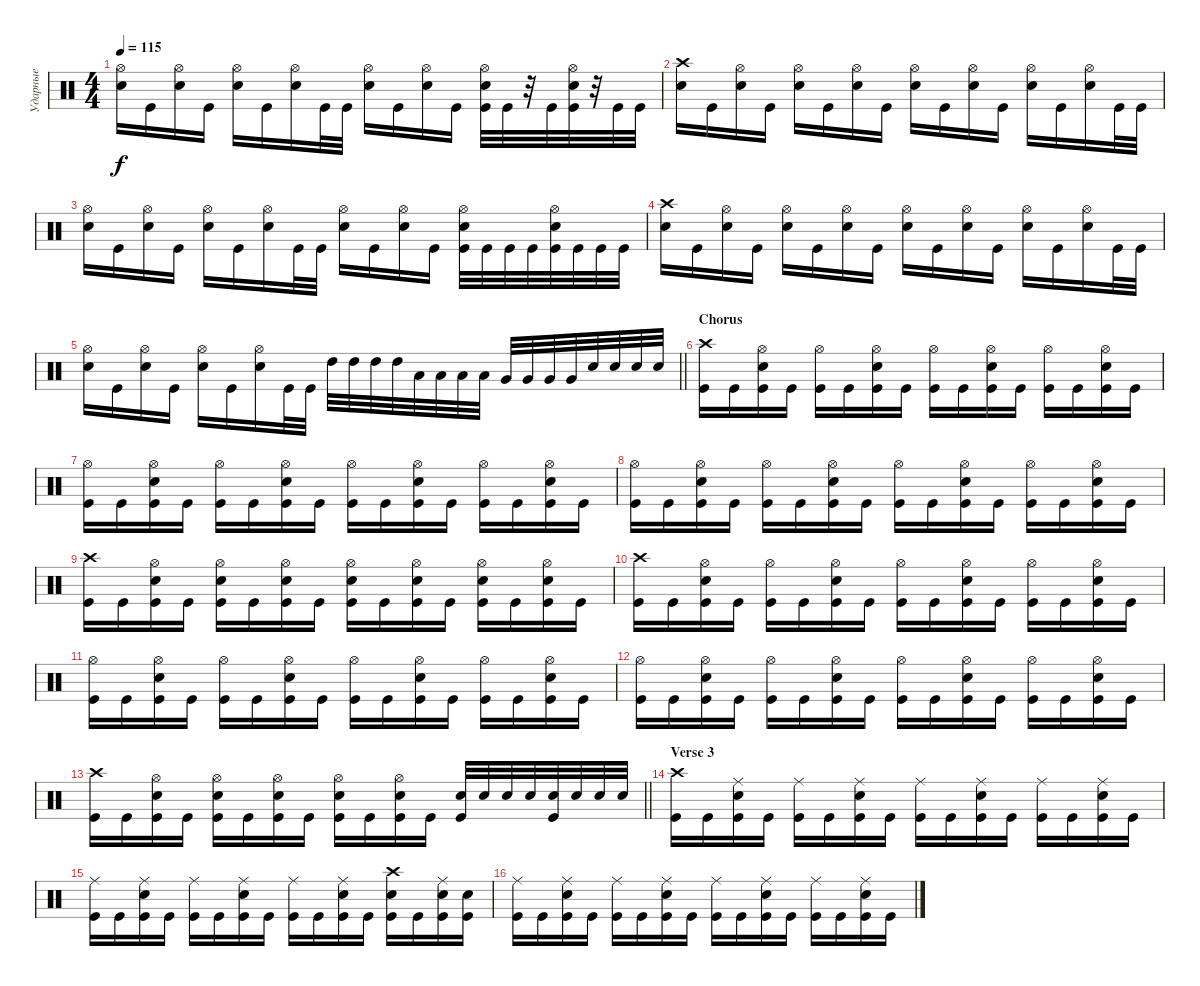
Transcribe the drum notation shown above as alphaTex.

\track ("Ударные" "Ударные") {instrument percussion}
\staff {score}
\articulation defaults
\ts (4 4)
\tempo 115
\clef neutral
\ks c
("Hi-Hat (open)" "Snare (hit) 2").16{dy f} "Kick (hit)".16 ("Hi-Hat (open)" "Snare (hit) 2").16 "Kick (hit)".16 ("Hi-Hat (open)" "Snare (hit) 2").16 "Kick (hit)".16 ("Hi-Hat (open)" "Snare (hit) 2").16 "Kick (hit)".32 "Kick (hit)".32 ("Hi-Hat (open)" "Snare (hit) 2").16 "Kick (hit)".16 ("Hi-Hat (open)" "Snare (hit) 2").16 "Kick (hit)".16 ("Hi-Hat (open)" "Snare (hit) 2" "Kick (hit)").32 "Kick (hit)".32 r.32 "Kick (hit)".32 ("Hi-Hat (open)" "Snare (hit) 2" "Kick (hit)").32 r.32 "Kick (hit)".32 "Kick (hit)".32 |
("Crash high (hit)" "Snare (hit) 2").16 "Kick (hit)".16 ("Hi-Hat (open)" "Snare (hit) 2").16 "Kick (hit)".16 ("Hi-Hat (open)" "Snare (hit) 2").16 "Kick (hit)".16 ("Hi-Hat (open)" "Snare (hit) 2").16 "Kick (hit)".16 ("Hi-Hat (open)" "Snare (hit) 2").16 "Kick (hit)".16 ("Hi-Hat (open)" "Snare (hit) 2").16 "Kick (hit)".16 ("Hi-Hat (open)" "Snare (hit) 2").16 "Kick (hit)".16 ("Hi-Hat (open)" "Snare (hit) 2").16 "Kick (hit)".32 "Kick (hit)".32 |
("Hi-Hat (open)" "Snare (hit) 2").16 "Kick (hit)".16 ("Hi-Hat (open)" "Snare (hit) 2").16 "Kick (hit)".16 ("Hi-Hat (open)" "Snare (hit) 2").16 "Kick (hit)".16 ("Hi-Hat (open)" "Snare (hit) 2").16 "Kick (hit)".32 "Kick (hit)".32 ("Hi-Hat (open)" "Snare (hit) 2").16 "Kick (hit)".16 ("Hi-Hat (open)" "Snare (hit) 2").16 "Kick (hit)".16 ("Hi-Hat (open)" "Snare (hit) 2" "Kick (hit)").32 "Kick (hit)".32 "Kick (hit)".32 "Kick (hit)".32 ("Hi-Hat (open)" "Snare (hit) 2" "Kick (hit)").32 "Kick (hit)".32 "Kick (hit)".32 "Kick (hit)".32 |
("Crash high (hit)" "Snare (hit) 2").16 "Kick (hit)".16 ("Hi-Hat (open)" "Snare (hit) 2").16 "Kick (hit)".16 ("Hi-Hat (open)" "Snare (hit) 2").16 "Kick (hit)".16 ("Hi-Hat (open)" "Snare (hit) 2").16 "Kick (hit)".16 ("Hi-Hat (open)" "Snare (hit) 2").16 "Kick (hit)".16 ("Hi-Hat (open)" "Snare (hit) 2").16 "Kick (hit)".16 ("Hi-Hat (open)" "Snare (hit) 2").16 "Kick (hit)".16 ("Hi-Hat (open)" "Snare (hit) 2").16 "Kick (hit)".32 "Kick (hit)".32 |
\barLineRight lightlight
("Hi-Hat (open)" "Snare (hit) 2").16 "Kick (hit)".16 ("Hi-Hat (open)" "Snare (hit) 2").16 "Kick (hit)".16 ("Hi-Hat (open)" "Snare (hit) 2").16 "Kick (hit)".16 ("Hi-Hat (open)" "Snare (hit) 2").16 "Kick (hit)".32 "Kick (hit)".32 "High Tom (hit)".32 "High Tom (hit)".32 "High Tom (hit)".32 "High Tom (hit)".32 "Low Tom (hit)".32 "Low Tom (hit)".32 "Low Tom (hit)".32 "Low Tom (hit)".32 "Very Low Tom (hit)".32 "Very Low Tom (hit)".32 "Very Low Tom (hit)".32 "Very Low Tom (hit)".32 "Snare (hit) 2".32 "Snare (hit) 2".32 "Snare (hit) 2".32 "Snare (hit) 2".32 |
\section ("" "Chorus")
("Crash high (hit)" "Kick (hit)").16 "Kick (hit)".16 ("Hi-Hat (open)" "Snare (hit) 2" "Kick (hit)").16 "Kick (hit)".16 ("Hi-Hat (open)" "Kick (hit)").16 "Kick (hit)".16 ("Hi-Hat (open)" "Snare (hit) 2" "Kick (hit)").16 "Kick (hit)".16 ("Hi-Hat (open)" "Kick (hit)").16 "Kick (hit)".16 ("Hi-Hat (open)" "Snare (hit) 2" "Kick (hit)").16 "Kick (hit)".16 ("Hi-Hat (open)" "Kick (hit)").16 "Kick (hit)".16 ("Hi-Hat (open)" "Snare (hit) 2" "Kick (hit)").16 "Kick (hit)".16 |
("Hi-Hat (open)" "Kick (hit)").16 "Kick (hit)".16 ("Hi-Hat (open)" "Snare (hit) 2" "Kick (hit)").16 "Kick (hit)".16 ("Hi-Hat (open)" "Kick (hit)").16 "Kick (hit)".16 ("Hi-Hat (open)" "Snare (hit) 2" "Kick (hit)").16 "Kick (hit)".16 ("Hi-Hat (open)" "Kick (hit)").16 "Kick (hit)".16 ("Hi-Hat (open)" "Snare (hit) 2" "Kick (hit)").16 "Kick (hit)".16 ("Hi-Hat (open)" "Kick (hit)").16 "Kick (hit)".16 ("Hi-Hat (open)" "Snare (hit) 2" "Kick (hit)").16 "Kick (hit)".16 |
("Hi-Hat (open)" "Kick (hit)").16 "Kick (hit)".16 ("Hi-Hat (open)" "Snare (hit) 2" "Kick (hit)").16 "Kick (hit)".16 ("Hi-Hat (open)" "Kick (hit)").16 "Kick (hit)".16 ("Hi-Hat (open)" "Snare (hit) 2" "Kick (hit)").16 "Kick (hit)".16 ("Hi-Hat (open)" "Kick (hit)").16 "Kick (hit)".16 ("Hi-Hat (open)" "Snare (hit) 2" "Kick (hit)").16 "Kick (hit)".16 ("Hi-Hat (open)" "Kick (hit)").16 "Kick (hit)".16 ("Hi-Hat (open)" "Snare (hit) 2" "Kick (hit)").16 "Kick (hit)".16 |
("Crash high (hit)" "Kick (hit)").16 "Kick (hit)".16 ("Hi-Hat (open)" "Snare (hit) 2" "Kick (hit)").16 "Kick (hit)".16 ("Hi-Hat (open)" "Snare (hit) 2" "Kick (hit)").16 "Kick (hit)".16 ("Hi-Hat (open)" "Snare (hit) 2" "Kick (hit)").16 "Kick (hit)".16 ("Hi-Hat (open)" "Snare (hit) 2" "Kick (hit)").16 "Kick (hit)".16 ("Hi-Hat (open)" "Snare (hit) 2" "Kick (hit)").16 "Kick (hit)".16 ("Hi-Hat (open)" "Snare (hit) 2" "Kick (hit)").16 "Kick (hit)".16 ("Hi-Hat (open)" "Snare (hit) 2" "Kick (hit)").16 "Kick (hit)".16 |
("Crash high (hit)" "Kick (hit)").16 "Kick (hit)".16 ("Hi-Hat (open)" "Snare (hit) 2" "Kick (hit)").16 "Kick (hit)".16 ("Hi-Hat (open)" "Kick (hit)").16 "Kick (hit)".16 ("Hi-Hat (open)" "Snare (hit) 2" "Kick (hit)").16 "Kick (hit)".16 ("Hi-Hat (open)" "Kick (hit)").16 "Kick (hit)".16 ("Hi-Hat (open)" "Snare (hit) 2" "Kick (hit)").16 "Kick (hit)".16 ("Hi-Hat (open)" "Kick (hit)").16 "Kick (hit)".16 ("Hi-Hat (open)" "Snare (hit) 2" "Kick (hit)").16 "Kick (hit)".16 |
("Hi-Hat (open)" "Kick (hit)").16 "Kick (hit)".16 ("Hi-Hat (open)" "Snare (hit) 2" "Kick (hit)").16 "Kick (hit)".16 ("Hi-Hat (open)" "Kick (hit)").16 "Kick (hit)".16 ("Hi-Hat (open)" "Snare (hit) 2" "Kick (hit)").16 "Kick (hit)".16 ("Hi-Hat (open)" "Kick (hit)").16 "Kick (hit)".16 ("Hi-Hat (open)" "Snare (hit) 2" "Kick (hit)").16 "Kick (hit)".16 ("Hi-Hat (open)" "Kick (hit)").16 "Kick (hit)".16 ("Hi-Hat (open)" "Snare (hit) 2" "Kick (hit)").16 "Kick (hit)".16 |
("Hi-Hat (open)" "Kick (hit)").16 "Kick (hit)".16 ("Hi-Hat (open)" "Snare (hit) 2" "Kick (hit)").16 "Kick (hit)".16 ("Hi-Hat (open)" "Kick (hit)").16 "Kick (hit)".16 ("Hi-Hat (open)" "Snare (hit) 2" "Kick (hit)").16 "Kick (hit)".16 ("Hi-Hat (open)" "Kick (hit)").16 "Kick (hit)".16 ("Hi-Hat (open)" "Snare (hit) 2" "Kick (hit)").16 "Kick (hit)".16 ("Hi-Hat (open)" "Kick (hit)").16 "Kick (hit)".16 ("Hi-Hat (open)" "Snare (hit) 2" "Kick (hit)").16 "Kick (hit)".16 |
\barLineRight lightlight
("Crash high (hit)" "Kick (hit)").16 "Kick (hit)".16 ("Hi-Hat (open)" "Snare (hit) 2" "Kick (hit)").16 "Kick (hit)".16 ("Hi-Hat (open)" "Snare (hit) 2" "Kick (hit)").16 "Kick (hit)".16 ("Hi-Hat (open)" "Snare (hit) 2" "Kick (hit)").16 "Kick (hit)".16 ("Hi-Hat (open)" "Snare (hit) 2" "Kick (hit)").16 "Kick (hit)".16 ("Hi-Hat (open)" "Snare (hit) 2" "Kick (hit)").16 "Kick (hit)".16 ("Snare (hit) 2" "Kick (hit)").32 "Snare (hit) 2".32 "Snare (hit) 2".32 "Snare (hit) 2".32 ("Snare (hit) 2" "Kick (hit)").32 "Snare (hit) 2".32 "Snare (hit) 2".32 "Snare (hit) 2".32 |
\section ("" "Verse 3")
("Crash high (hit)" "Kick (hit)").16 "Kick (hit)".16 ("Ride (middle)" "Snare (hit) 2" "Kick (hit)").16 "Kick (hit)".16 ("Ride (middle)" "Kick (hit)").16 "Kick (hit)".16 ("Ride (middle)" "Snare (hit) 2" "Kick (hit)").16 "Kick (hit)".16 ("Ride (middle)" "Kick (hit)").16 "Kick (hit)".16 ("Ride (middle)" "Snare (hit) 2" "Kick (hit)").16 "Kick (hit)".16 ("Ride (middle)" "Kick (hit)").16 "Kick (hit)".16 ("Ride (middle)" "Snare (hit) 2" "Kick (hit)").16 "Kick (hit)".16 |
("Ride (middle)" "Kick (hit)").16 "Kick (hit)".16 ("Ride (middle)" "Snare (hit) 2" "Kick (hit)").16 "Kick (hit)".16 ("Ride (middle)" "Kick (hit)").16 "Kick (hit)".16 ("Ride (middle)" "Snare (hit) 2" "Kick (hit)").16 "Kick (hit)".16 ("Ride (middle)" "Kick (hit)").16 "Kick (hit)".16 ("Ride (middle)" "Snare (hit) 2" "Kick (hit)").16 "Kick (hit)".16 ("Crash high (hit)" "Snare (hit) 2" "Kick (hit)").16 "Kick (hit)".16 ("Ride (middle)" "Snare (hit) 2" "Kick (hit)").16 ("Snare (hit) 2" "Kick (hit)").16 |
("Ride (middle)" "Kick (hit)").16 "Kick (hit)".16 ("Ride (middle)" "Snare (hit) 2" "Kick (hit)").16 "Kick (hit)".16 ("Ride (middle)" "Kick (hit)").16 "Kick (hit)".16 ("Ride (middle)" "Snare (hit) 2" "Kick (hit)").16 "Kick (hit)".16 ("Ride (middle)" "Kick (hit)").16 "Kick (hit)".16 ("Ride (middle)" "Snare (hit) 2" "Kick (hit)").16 "Kick (hit)".16 ("Ride (middle)" "Kick (hit)").16 "Kick (hit)".16 ("Ride (middle)" "Snare (hit) 2" "Kick (hit)").16 "Kick (hit)".16
